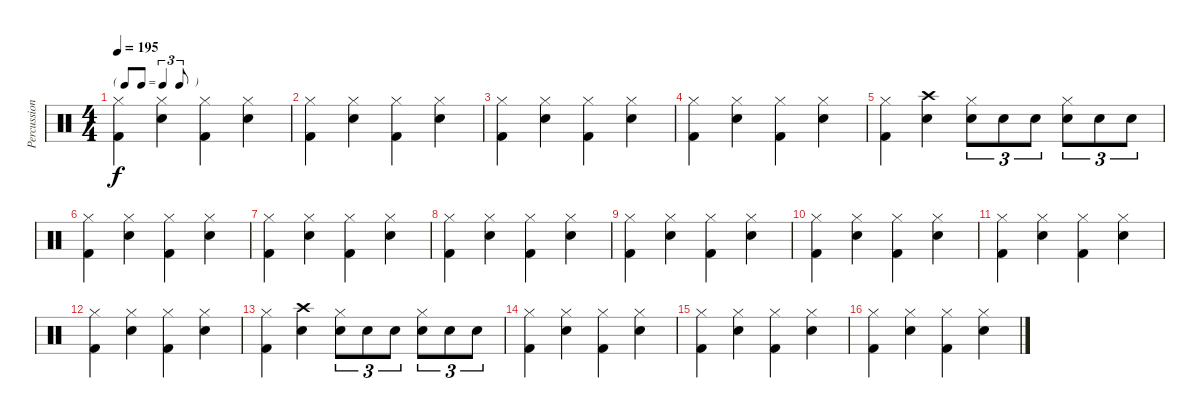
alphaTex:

\track ("Percussions" "Percussion") {instrument percussion}
\staff {score}
\articulation defaults
\ts (4 4)
\tf triplet8th
\tempo 195
\clef neutral
\ks c
("Hi-Hat (closed)" "Kick (hit) 2").4{dy f} ("Snare (hit) 2" "Hi-Hat (closed)").4 ("Hi-Hat (closed)" "Kick (hit) 2").4 ("Snare (hit) 2" "Hi-Hat (closed)").4 |
("Hi-Hat (closed)" "Kick (hit) 2").4 ("Snare (hit) 2" "Hi-Hat (closed)").4 ("Hi-Hat (closed)" "Kick (hit) 2").4 ("Snare (hit) 2" "Hi-Hat (closed)").4 |
("Hi-Hat (closed)" "Kick (hit) 2").4 ("Snare (hit) 2" "Hi-Hat (closed)").4 ("Hi-Hat (closed)" "Kick (hit) 2").4 ("Snare (hit) 2" "Hi-Hat (closed)").4 |
("Hi-Hat (closed)" "Kick (hit) 2").4 ("Snare (hit) 2" "Hi-Hat (closed)").4 ("Hi-Hat (closed)" "Kick (hit) 2").4 ("Snare (hit) 2" "Hi-Hat (closed)").4 |
("Hi-Hat (closed)" "Kick (hit) 2").4 ("Snare (hit) 2" "Crash high (hit)").4 ("Snare (hit) 2" "Hi-Hat (closed)").8{tu (3 2)} "Snare (hit) 2".8{tu (3 2)} "Snare (hit) 2".8{tu (3 2)} ("Snare (hit) 2" "Hi-Hat (closed)").8{tu (3 2)} "Snare (hit) 2".8{tu (3 2)} "Snare (hit) 2".8{tu (3 2)} |
("Hi-Hat (closed)" "Kick (hit) 2").4 ("Snare (hit) 2" "Hi-Hat (closed)").4 ("Hi-Hat (closed)" "Kick (hit) 2").4 ("Snare (hit) 2" "Hi-Hat (closed)").4 |
("Hi-Hat (closed)" "Kick (hit) 2").4 ("Snare (hit) 2" "Hi-Hat (closed)").4 ("Hi-Hat (closed)" "Kick (hit) 2").4 ("Snare (hit) 2" "Hi-Hat (closed)").4 |
("Hi-Hat (closed)" "Kick (hit) 2").4 ("Snare (hit) 2" "Hi-Hat (closed)").4 ("Hi-Hat (closed)" "Kick (hit) 2").4 ("Snare (hit) 2" "Hi-Hat (closed)").4 |
("Hi-Hat (closed)" "Kick (hit) 2").4 ("Snare (hit) 2" "Hi-Hat (closed)").4 ("Hi-Hat (closed)" "Kick (hit) 2").4 ("Snare (hit) 2" "Hi-Hat (closed)").4 |
("Hi-Hat (closed)" "Kick (hit) 2").4 ("Snare (hit) 2" "Hi-Hat (closed)").4 ("Hi-Hat (closed)" "Kick (hit) 2").4 ("Snare (hit) 2" "Hi-Hat (closed)").4 |
("Hi-Hat (closed)" "Kick (hit) 2").4 ("Snare (hit) 2" "Hi-Hat (closed)").4 ("Hi-Hat (closed)" "Kick (hit) 2").4 ("Snare (hit) 2" "Hi-Hat (closed)").4 |
("Hi-Hat (closed)" "Kick (hit) 2").4 ("Snare (hit) 2" "Hi-Hat (closed)").4 ("Hi-Hat (closed)" "Kick (hit) 2").4 ("Snare (hit) 2" "Hi-Hat (closed)").4 |
("Hi-Hat (closed)" "Kick (hit) 2").4 ("Snare (hit) 2" "Crash high (hit)").4 ("Snare (hit) 2" "Hi-Hat (closed)").8{tu (3 2)} "Snare (hit) 2".8{tu (3 2)} "Snare (hit) 2".8{tu (3 2)} ("Snare (hit) 2" "Hi-Hat (closed)").8{tu (3 2)} "Snare (hit) 2".8{tu (3 2)} "Snare (hit) 2".8{tu (3 2)} |
("Hi-Hat (closed)" "Kick (hit) 2").4 ("Snare (hit) 2" "Hi-Hat (closed)").4 ("Hi-Hat (closed)" "Kick (hit) 2").4 ("Snare (hit) 2" "Hi-Hat (closed)").4 |
("Hi-Hat (closed)" "Kick (hit) 2").4 ("Snare (hit) 2" "Hi-Hat (closed)").4 ("Hi-Hat (closed)" "Kick (hit) 2").4 ("Snare (hit) 2" "Hi-Hat (closed)").4 |
("Hi-Hat (closed)" "Kick (hit) 2").4 ("Snare (hit) 2" "Hi-Hat (closed)").4 ("Hi-Hat (closed)" "Kick (hit) 2").4 ("Snare (hit) 2" "Hi-Hat (closed)").4
